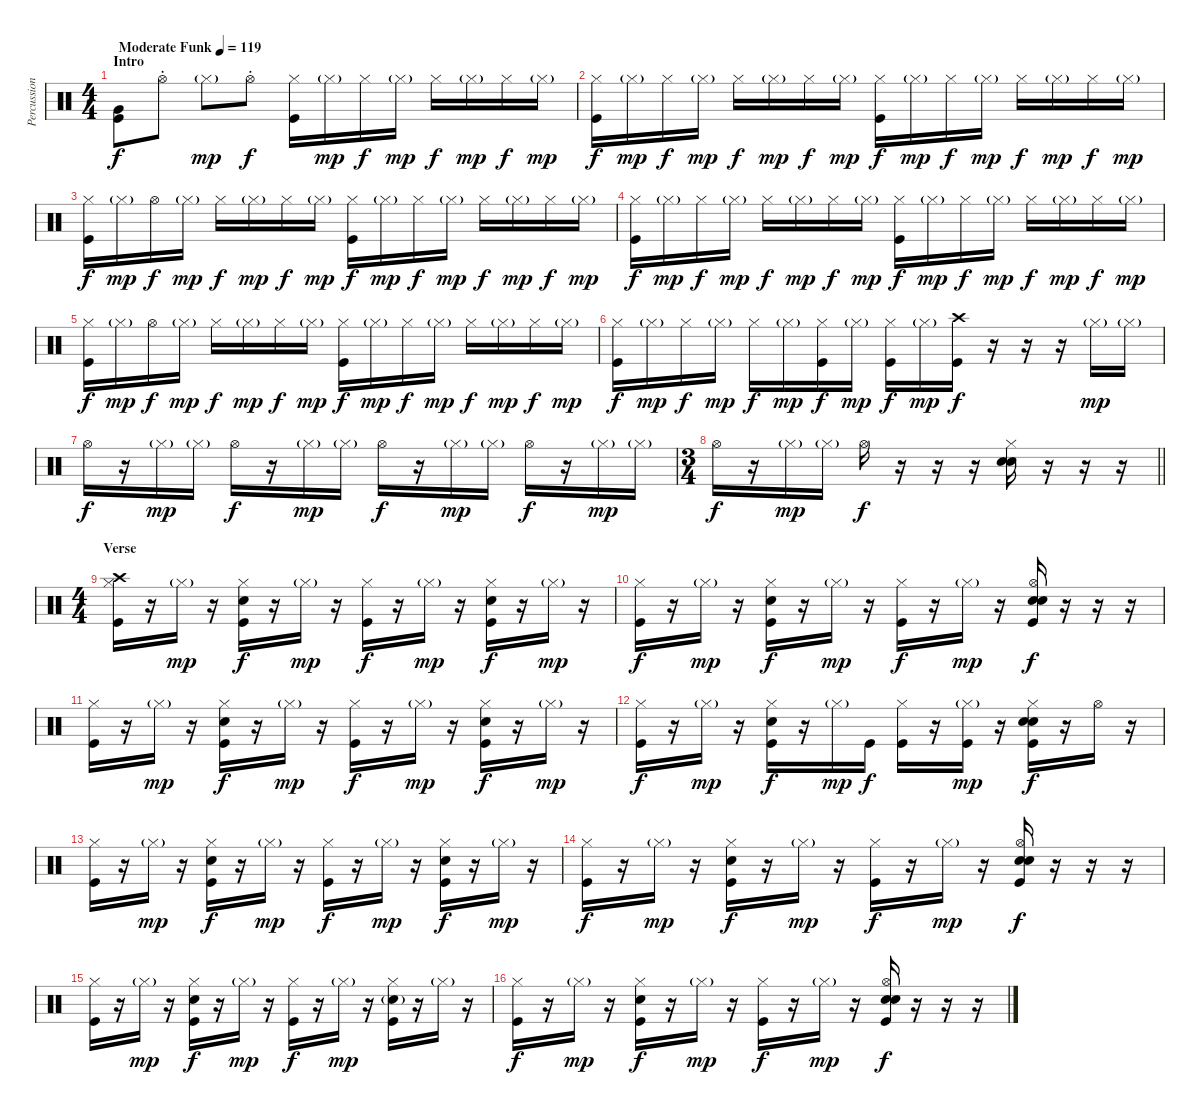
\track ("Percussion" "Percussion") {instrument percussion}
\staff {score}
\articulation defaults
\ts (4 4)
\section ("" "Intro")
\tempo (119 "Moderate Funk")
\clef neutral
\ks c
("Very Low Tom (hit)" "Kick (hit)").8{dy f} "Hi-Hat (open)"{st}.8 "Hi-Hat (closed)"{g}.8{dy mp} "Hi-Hat (open)"{st}.8{dy f} ("Hi-Hat (closed)" "Kick (hit)").16 "Hi-Hat (closed)"{g}.16{dy mp} "Hi-Hat (closed)".16{dy f} "Hi-Hat (closed)"{g}.16{dy mp} "Hi-Hat (closed)".16{dy f} "Hi-Hat (closed)"{g}.16{dy mp} "Hi-Hat (closed)".16{dy f} "Hi-Hat (closed)"{g}.16{dy mp} |
("Hi-Hat (closed)" "Kick (hit)").16{dy f} "Hi-Hat (closed)"{g}.16{dy mp} "Hi-Hat (closed)".16{dy f} "Hi-Hat (closed)"{g}.16{dy mp} "Hi-Hat (closed)".16{dy f} "Hi-Hat (closed)"{g}.16{dy mp} "Hi-Hat (closed)".16{dy f} "Hi-Hat (closed)"{g}.16{dy mp} ("Hi-Hat (closed)" "Kick (hit)").16{dy f} "Hi-Hat (closed)"{g}.16{dy mp} "Hi-Hat (closed)".16{dy f} "Hi-Hat (closed)"{g}.16{dy mp} "Hi-Hat (closed)".16{dy f} "Hi-Hat (closed)"{g}.16{dy mp} "Hi-Hat (closed)".16{dy f} "Hi-Hat (closed)"{g}.16{dy mp} |
("Hi-Hat (closed)" "Kick (hit)").16{dy f} "Hi-Hat (closed)"{g}.16{dy mp} "Hi-Hat (open)".16{dy f} "Hi-Hat (closed)"{g}.16{dy mp} "Hi-Hat (closed)".16{dy f} "Hi-Hat (closed)"{g}.16{dy mp} "Hi-Hat (closed)".16{dy f} "Hi-Hat (closed)"{g}.16{dy mp} ("Hi-Hat (closed)" "Kick (hit)").16{dy f} "Hi-Hat (closed)"{g}.16{dy mp} "Hi-Hat (closed)".16{dy f} "Hi-Hat (closed)"{g}.16{dy mp} "Hi-Hat (closed)".16{dy f} "Hi-Hat (closed)"{g}.16{dy mp} "Hi-Hat (closed)".16{dy f} "Hi-Hat (closed)"{g}.16{dy mp} |
("Hi-Hat (closed)" "Kick (hit)").16{dy f} "Hi-Hat (closed)"{g}.16{dy mp} "Hi-Hat (closed)".16{dy f} "Hi-Hat (closed)"{g}.16{dy mp} "Hi-Hat (closed)".16{dy f} "Hi-Hat (closed)"{g}.16{dy mp} "Hi-Hat (closed)".16{dy f} "Hi-Hat (closed)"{g}.16{dy mp} ("Hi-Hat (closed)" "Kick (hit)").16{dy f} "Hi-Hat (closed)"{g}.16{dy mp} "Hi-Hat (closed)".16{dy f} "Hi-Hat (closed)"{g}.16{dy mp} "Hi-Hat (closed)".16{dy f} "Hi-Hat (closed)"{g}.16{dy mp} "Hi-Hat (closed)".16{dy f} "Hi-Hat (closed)"{g}.16{dy mp} |
("Hi-Hat (closed)" "Kick (hit)").16{dy f} "Hi-Hat (closed)"{g}.16{dy mp} "Hi-Hat (open)".16{dy f} "Hi-Hat (closed)"{g}.16{dy mp} "Hi-Hat (closed)".16{dy f} "Hi-Hat (closed)"{g}.16{dy mp} "Hi-Hat (closed)".16{dy f} "Hi-Hat (closed)"{g}.16{dy mp} ("Hi-Hat (closed)" "Kick (hit)").16{dy f} "Hi-Hat (closed)"{g}.16{dy mp} "Hi-Hat (closed)".16{dy f} "Hi-Hat (closed)"{g}.16{dy mp} "Hi-Hat (closed)".16{dy f} "Hi-Hat (closed)"{g}.16{dy mp} "Hi-Hat (closed)".16{dy f} "Hi-Hat (closed)"{g}.16{dy mp} |
("Hi-Hat (closed)" "Kick (hit)").16{dy f} "Hi-Hat (closed)"{g}.16{dy mp} "Hi-Hat (closed)".16{dy f} "Hi-Hat (closed)"{g}.16{dy mp} "Hi-Hat (closed)".16{dy f} "Hi-Hat (closed)"{g}.16{dy mp} ("Hi-Hat (closed)" "Kick (hit)").16{dy f} "Hi-Hat (closed)"{g}.16{dy mp} ("Hi-Hat (closed)" "Kick (hit)").16{dy f} "Hi-Hat (closed)"{g}.16{dy mp} ("Crash high (hit)" "Kick (hit)").16{dy f} r.16 r.16 r.16 "Hi-Hat (closed)"{g}.16{dy mp} "Hi-Hat (closed)"{g}.16 |
"Hi-Hat (open)".16{dy f} r.16 "Hi-Hat (closed)"{g}.16{dy mp} "Hi-Hat (closed)"{g}.16 "Hi-Hat (open)".16{dy f} r.16 "Hi-Hat (closed)"{g}.16{dy mp} "Hi-Hat (closed)"{g}.16 "Hi-Hat (open)".16{dy f} r.16 "Hi-Hat (closed)"{g}.16{dy mp} "Hi-Hat (closed)"{g}.16 "Hi-Hat (open)".16{dy f} r.16 "Hi-Hat (closed)"{g}.16{dy mp} "Hi-Hat (closed)"{g}.16 |
\ts (3 4)
\barLineRight lightlight "Hi-Hat (open)".16{dy f}
r.16 "Hi-Hat (closed)"{g}.16{dy mp} "Hi-Hat (closed)"{g}.16 "Hi-Hat (open)".16{dy f} r.16 r.16 r.16 ("Hi-Hat (closed)" "Hand Clap (hit)" "Snare (hit) 2").16 r.16 r.16 r.16 |
\ts (4 4)
\section ("" "Verse")
("Crash high (hit)" "Hi-Hat (closed)" "Kick (hit)").16 r.16 "Hi-Hat (closed)"{g}.16{dy mp} r.16 ("Hi-Hat (closed)" "Snare (hit) 2" "Kick (hit)").16{dy f} r.16 "Hi-Hat (closed)"{g}.16{dy mp} r.16 ("Hi-Hat (closed)" "Kick (hit)").16{dy f} r.16 "Hi-Hat (closed)"{g}.16{dy mp} r.16 ("Hi-Hat (closed)" "Snare (hit) 2" "Kick (hit)").16{dy f} r.16 "Hi-Hat (closed)"{g}.16{dy mp} r.16 |
("Hi-Hat (closed)" "Kick (hit)").16{dy f} r.16 "Hi-Hat (closed)"{g}.16{dy mp} r.16 ("Hi-Hat (closed)" "Snare (hit) 2" "Kick (hit)").16{dy f} r.16 "Hi-Hat (closed)"{g}.16{dy mp} r.16 ("Hi-Hat (closed)" "Kick (hit)").16{dy f} r.16 "Hi-Hat (closed)"{g}.16{dy mp} r.16 ("Hi-Hat (open)" "Hand Clap (hit)" "Snare (hit) 2" "Kick (hit)").16{dy f} r.16 r.16 r.16 |
("Hi-Hat (closed)" "Kick (hit)").16 r.16 "Hi-Hat (closed)"{g}.16{dy mp} r.16 ("Hi-Hat (closed)" "Snare (hit) 2" "Kick (hit)").16{dy f} r.16 "Hi-Hat (closed)"{g}.16{dy mp} r.16 ("Hi-Hat (closed)" "Kick (hit)").16{dy f} r.16 "Hi-Hat (closed)"{g}.16{dy mp} r.16 ("Hi-Hat (closed)" "Snare (hit) 2" "Kick (hit)").16{dy f} r.16 "Hi-Hat (closed)"{g}.16{dy mp} r.16 |
("Hi-Hat (closed)" "Kick (hit)").16{dy f} r.16 "Hi-Hat (closed)"{g}.16{dy mp} r.16 ("Hi-Hat (closed)" "Snare (hit) 2" "Kick (hit)").16{dy f} r.16 "Hi-Hat (closed)"{g}.16{dy mp} "Kick (hit)".16{dy f} ("Hi-Hat (closed)" "Kick (hit)").16 r.16 ("Hi-Hat (closed)"{g} "Kick (hit)").16{dy mp} r.16 ("Hi-Hat (closed)" "Hand Clap (hit)" "Snare (hit) 2" "Kick (hit)").16{dy f} r.16 "Hi-Hat (open)".16 r.16 |
("Hi-Hat (closed)" "Kick (hit)").16 r.16 "Hi-Hat (closed)"{g}.16{dy mp} r.16 ("Hi-Hat (closed)" "Snare (hit) 2" "Kick (hit)").16{dy f} r.16 "Hi-Hat (closed)"{g}.16{dy mp} r.16 ("Hi-Hat (closed)" "Kick (hit)").16{dy f} r.16 "Hi-Hat (closed)"{g}.16{dy mp} r.16 ("Hi-Hat (closed)" "Snare (hit) 2" "Kick (hit)").16{dy f} r.16 "Hi-Hat (closed)"{g}.16{dy mp} r.16 |
("Hi-Hat (closed)" "Kick (hit)").16{dy f} r.16 "Hi-Hat (closed)"{g}.16{dy mp} r.16 ("Hi-Hat (closed)" "Snare (hit) 2" "Kick (hit)").16{dy f} r.16 "Hi-Hat (closed)"{g}.16{dy mp} r.16 ("Hi-Hat (closed)" "Kick (hit)").16{dy f} r.16 "Hi-Hat (closed)"{g}.16{dy mp} r.16 ("Hi-Hat (open)" "Hand Clap (hit)" "Snare (hit) 2" "Kick (hit)").16{dy f} r.16 r.16 r.16 |
("Hi-Hat (closed)" "Kick (hit)").16 r.16 "Hi-Hat (closed)"{g}.16{dy mp} r.16 ("Hi-Hat (closed)" "Snare (hit) 2" "Kick (hit)").16{dy f} r.16 "Hi-Hat (closed)"{g}.16{dy mp} r.16 ("Hi-Hat (closed)" "Kick (hit)").16{dy f} r.16 "Hi-Hat (closed)"{g}.16{dy mp} r.16 ("Hi-Hat (closed)" "Snare (hit) 2"{g} "Kick (hit)").16 r.16 "Hi-Hat (closed)"{g}.16 r.16 |
("Hi-Hat (closed)" "Kick (hit)").16{dy f} r.16 "Hi-Hat (closed)"{g}.16{dy mp} r.16 ("Hi-Hat (closed)" "Snare (hit) 2" "Kick (hit)").16{dy f} r.16 "Hi-Hat (closed)"{g}.16{dy mp} r.16 ("Hi-Hat (closed)" "Kick (hit)").16{dy f} r.16 "Hi-Hat (closed)"{g}.16{dy mp} r.16 ("Hi-Hat (open)" "Hand Clap (hit)" "Snare (hit) 2" "Kick (hit)").16{dy f} r.16 r.16 r.16
